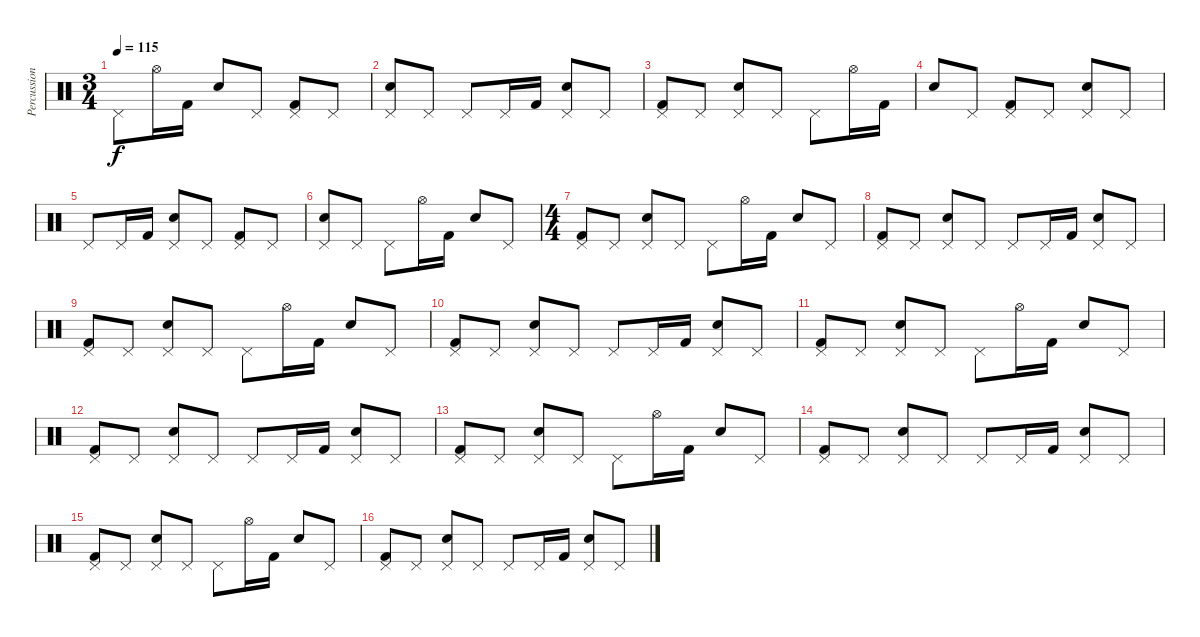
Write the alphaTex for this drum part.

\track ("Percussions" "Percussion") {instrument percussion}
\staff {score}
\articulation defaults
\ts (3 4)
\tempo 115
\clef neutral
\ks c "Pedal Hi-Hat (hit)".8{dy f} "Hi-Hat (open)".16 "Kick (hit) 2".16 "Snare (hit) 2".8 "Pedal Hi-Hat (hit)".8
("Pedal Hi-Hat (hit)" "Kick (hit) 2").8 "Pedal Hi-Hat (hit)".8 |
("Pedal Hi-Hat (hit)" "Snare (hit) 2").8 "Pedal Hi-Hat (hit)".8 "Pedal Hi-Hat (hit)".8 "Pedal Hi-Hat (hit)".16 "Kick (hit) 2".16 ("Pedal Hi-Hat (hit)" "Snare (hit) 2").8 "Pedal Hi-Hat (hit)".8 |
("Pedal Hi-Hat (hit)" "Kick (hit) 2").8 "Pedal Hi-Hat (hit)".8 ("Pedal Hi-Hat (hit)" "Snare (hit) 2").8 "Pedal Hi-Hat (hit)".8 "Pedal Hi-Hat (hit)".8 "Hi-Hat (open)".16 "Kick (hit) 2".16 |
"Snare (hit) 2".8 "Pedal Hi-Hat (hit)".8 ("Pedal Hi-Hat (hit)" "Kick (hit) 2").8 "Pedal Hi-Hat (hit)".8 ("Pedal Hi-Hat (hit)" "Snare (hit) 2").8 "Pedal Hi-Hat (hit)".8 |
"Pedal Hi-Hat (hit)".8 "Pedal Hi-Hat (hit)".16 "Kick (hit) 2".16 ("Pedal Hi-Hat (hit)" "Snare (hit) 2").8 "Pedal Hi-Hat (hit)".8 ("Pedal Hi-Hat (hit)" "Kick (hit) 2").8 "Pedal Hi-Hat (hit)".8 |
("Pedal Hi-Hat (hit)" "Snare (hit) 2").8 "Pedal Hi-Hat (hit)".8 "Pedal Hi-Hat (hit)".8 "Hi-Hat (open)".16 "Kick (hit) 2".16 "Snare (hit) 2".8 "Pedal Hi-Hat (hit)".8 |
\ts (4 4)
("Pedal Hi-Hat (hit)" "Kick (hit) 2").8 "Pedal Hi-Hat (hit)".8 ("Pedal Hi-Hat (hit)" "Snare (hit) 2").8 "Pedal Hi-Hat (hit)".8 "Pedal Hi-Hat (hit)".8 "Hi-Hat (open)".16 "Kick (hit) 2".16 "Snare (hit) 2".8 "Pedal Hi-Hat (hit)".8 |
("Pedal Hi-Hat (hit)" "Kick (hit) 2").8 "Pedal Hi-Hat (hit)".8 ("Pedal Hi-Hat (hit)" "Snare (hit) 2").8 "Pedal Hi-Hat (hit)".8 "Pedal Hi-Hat (hit)".8 "Pedal Hi-Hat (hit)".16 "Kick (hit) 2".16 ("Pedal Hi-Hat (hit)" "Snare (hit) 2").8 "Pedal Hi-Hat (hit)".8 |
("Pedal Hi-Hat (hit)" "Kick (hit) 2").8 "Pedal Hi-Hat (hit)".8 ("Pedal Hi-Hat (hit)" "Snare (hit) 2").8 "Pedal Hi-Hat (hit)".8 "Pedal Hi-Hat (hit)".8 "Hi-Hat (open)".16 "Kick (hit) 2".16 "Snare (hit) 2".8 "Pedal Hi-Hat (hit)".8 |
("Pedal Hi-Hat (hit)" "Kick (hit) 2").8 "Pedal Hi-Hat (hit)".8 ("Pedal Hi-Hat (hit)" "Snare (hit) 2").8 "Pedal Hi-Hat (hit)".8 "Pedal Hi-Hat (hit)".8 "Pedal Hi-Hat (hit)".16 "Kick (hit) 2".16 ("Pedal Hi-Hat (hit)" "Snare (hit) 2").8 "Pedal Hi-Hat (hit)".8 |
("Pedal Hi-Hat (hit)" "Kick (hit) 2").8 "Pedal Hi-Hat (hit)".8 ("Pedal Hi-Hat (hit)" "Snare (hit) 2").8 "Pedal Hi-Hat (hit)".8 "Pedal Hi-Hat (hit)".8 "Hi-Hat (open)".16 "Kick (hit) 2".16 "Snare (hit) 2".8 "Pedal Hi-Hat (hit)".8 |
("Pedal Hi-Hat (hit)" "Kick (hit) 2").8 "Pedal Hi-Hat (hit)".8 ("Pedal Hi-Hat (hit)" "Snare (hit) 2").8 "Pedal Hi-Hat (hit)".8 "Pedal Hi-Hat (hit)".8 "Pedal Hi-Hat (hit)".16 "Kick (hit) 2".16 ("Pedal Hi-Hat (hit)" "Snare (hit) 2").8 "Pedal Hi-Hat (hit)".8 |
("Pedal Hi-Hat (hit)" "Kick (hit) 2").8 "Pedal Hi-Hat (hit)".8 ("Pedal Hi-Hat (hit)" "Snare (hit) 2").8 "Pedal Hi-Hat (hit)".8 "Pedal Hi-Hat (hit)".8 "Hi-Hat (open)".16 "Kick (hit) 2".16 "Snare (hit) 2".8 "Pedal Hi-Hat (hit)".8 |
("Pedal Hi-Hat (hit)" "Kick (hit) 2").8 "Pedal Hi-Hat (hit)".8 ("Pedal Hi-Hat (hit)" "Snare (hit) 2").8 "Pedal Hi-Hat (hit)".8 "Pedal Hi-Hat (hit)".8 "Pedal Hi-Hat (hit)".16 "Kick (hit) 2".16 ("Pedal Hi-Hat (hit)" "Snare (hit) 2").8 "Pedal Hi-Hat (hit)".8 |
("Pedal Hi-Hat (hit)" "Kick (hit) 2").8 "Pedal Hi-Hat (hit)".8 ("Pedal Hi-Hat (hit)" "Snare (hit) 2").8 "Pedal Hi-Hat (hit)".8 "Pedal Hi-Hat (hit)".8 "Hi-Hat (open)".16 "Kick (hit) 2".16 "Snare (hit) 2".8 "Pedal Hi-Hat (hit)".8 |
("Pedal Hi-Hat (hit)" "Kick (hit) 2").8 "Pedal Hi-Hat (hit)".8 ("Pedal Hi-Hat (hit)" "Snare (hit) 2").8 "Pedal Hi-Hat (hit)".8 "Pedal Hi-Hat (hit)".8 "Pedal Hi-Hat (hit)".16 "Kick (hit) 2".16 ("Pedal Hi-Hat (hit)" "Snare (hit) 2").8 "Pedal Hi-Hat (hit)".8
